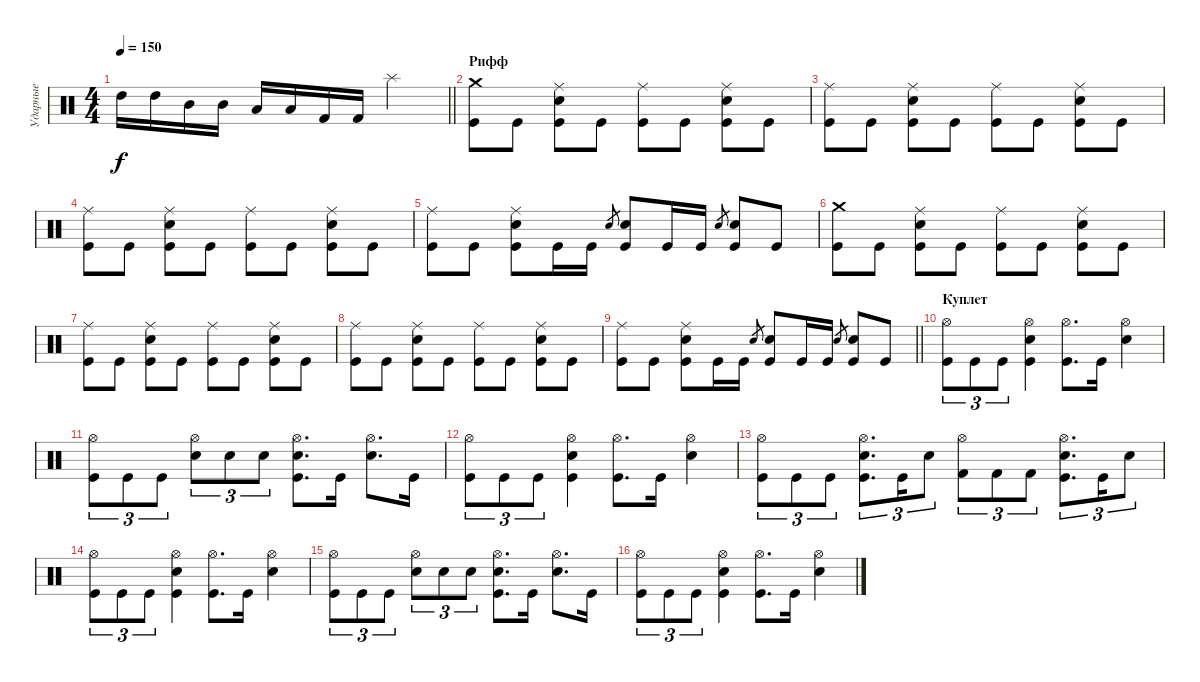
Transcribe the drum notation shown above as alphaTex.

\track ("Ударные" "Ударные") {instrument percussion}
\staff {score}
\articulation defaults
\ts (4 4)
\tempo 150
\clef neutral
\barLineRight lightlight
\ks c "High Tom (hit)".16{dy f} "High Tom (hit)".16 "Mid Tom (hit)".16 "Mid Tom (hit)".16 "Low Tom (hit)".16 "Low Tom (hit)".16 "Kick (hit) 2".16 "Kick (hit) 2".16 "Splash (hit)".2
|
\section ("" "Рифф")
("Kick (hit)" "Crash medium (hit)").8 "Kick (hit)".8 ("Kick (hit)" "Electric Snare (hit)" "Ride (middle)").8 "Kick (hit)".8 ("Kick (hit)" "Ride (middle)").8 "Kick (hit)".8 ("Kick (hit)" "Electric Snare (hit)" "Ride (middle)").8 "Kick (hit)".8 |
("Kick (hit)" "Ride (middle)").8 "Kick (hit)".8 ("Kick (hit)" "Electric Snare (hit)" "Ride (middle)").8 "Kick (hit)".8 ("Kick (hit)" "Ride (middle)").8 "Kick (hit)".8 ("Kick (hit)" "Electric Snare (hit)" "Ride (middle)").8 "Kick (hit)".8 |
("Kick (hit)" "Ride (middle)").8 "Kick (hit)".8 ("Kick (hit)" "Electric Snare (hit)" "Ride (middle)").8 "Kick (hit)".8 ("Kick (hit)" "Ride (middle)").8 "Kick (hit)".8 ("Kick (hit)" "Electric Snare (hit)" "Ride (middle)").8 "Kick (hit)".8 |
("Kick (hit)" "Ride (middle)").8 "Kick (hit)".8 ("Kick (hit)" "Electric Snare (hit)" "Ride (middle)").8 "Kick (hit)".16 "Kick (hit)".16 "Electric Snare (hit)".8{gr} ("Electric Snare (hit)" "Kick (hit)").8 "Kick (hit)".16 "Kick (hit)".16 "Electric Snare (hit)".8{gr} ("Electric Snare (hit)" "Kick (hit)").8 "Kick (hit)".8 |
("Kick (hit)" "Crash medium (hit)").8 "Kick (hit)".8 ("Kick (hit)" "Electric Snare (hit)" "Ride (middle)").8 "Kick (hit)".8 ("Kick (hit)" "Ride (middle)").8 "Kick (hit)".8 ("Kick (hit)" "Electric Snare (hit)" "Ride (middle)").8 "Kick (hit)".8 |
("Kick (hit)" "Ride (middle)").8 "Kick (hit)".8 ("Kick (hit)" "Electric Snare (hit)" "Ride (middle)").8 "Kick (hit)".8 ("Kick (hit)" "Ride (middle)").8 "Kick (hit)".8 ("Kick (hit)" "Electric Snare (hit)" "Ride (middle)").8 "Kick (hit)".8 |
("Kick (hit)" "Ride (middle)").8 "Kick (hit)".8 ("Kick (hit)" "Electric Snare (hit)" "Ride (middle)").8 "Kick (hit)".8 ("Kick (hit)" "Ride (middle)").8 "Kick (hit)".8 ("Kick (hit)" "Electric Snare (hit)" "Ride (middle)").8 "Kick (hit)".8 |
\barLineRight lightlight
("Kick (hit)" "Ride (middle)").8 "Kick (hit)".8 ("Kick (hit)" "Electric Snare (hit)" "Ride (middle)").8 "Kick (hit)".16 "Kick (hit)".16 "Electric Snare (hit)".8{gr} ("Electric Snare (hit)" "Kick (hit)").8 "Kick (hit)".16 "Kick (hit)".16 "Electric Snare (hit)".8{gr} ("Electric Snare (hit)" "Kick (hit)").8 "Kick (hit)".8 |
\section ("" "Куплет")
("Kick (hit)" "Hi-Hat (open)").8{tu (3 2)} "Kick (hit)".8{tu (3 2)} "Kick (hit)".8{tu (3 2)} ("Kick (hit)" "Electric Snare (hit)" "Hi-Hat (open)").4 ("Kick (hit)" "Hi-Hat (open)").8{d} "Kick (hit)".16 ("Electric Snare (hit)" "Hi-Hat (open)").4 |
("Kick (hit)" "Hi-Hat (open)").8{tu (3 2)} "Kick (hit)".8{tu (3 2)} "Kick (hit)".8{tu (3 2)} ("Electric Snare (hit)" "Hi-Hat (open)").8{tu (3 2)} "Electric Snare (hit)".8{tu (3 2)} "Electric Snare (hit)".8{tu (3 2)} ("Electric Snare (hit)" "Kick (hit)" "Hi-Hat (open)").8{d} "Kick (hit)".16 ("Electric Snare (hit)" "Hi-Hat (open)").8{d} "Kick (hit)".16 |
("Kick (hit)" "Hi-Hat (open)").8{tu (3 2)} "Kick (hit)".8{tu (3 2)} "Kick (hit)".8{tu (3 2)} ("Kick (hit)" "Electric Snare (hit)" "Hi-Hat (open)").4 ("Kick (hit)" "Hi-Hat (open)").8{d} "Kick (hit)".16 ("Electric Snare (hit)" "Hi-Hat (open)").4 |
("Kick (hit)" "Hi-Hat (open)").8{tu (3 2)} "Kick (hit)".8{tu (3 2)} "Kick (hit)".8{tu (3 2)} ("Electric Snare (hit)" "Hi-Hat (open)" "Kick (hit)").8{d tu (3 2)} "Kick (hit)".16{tu (3 2)} "Electric Snare (hit)".8{tu (3 2)} ("Kick (hit) 2" "Hi-Hat (open)").8{tu (3 2)} "Kick (hit) 2".8{tu (3 2)} "Kick (hit) 2".8{tu (3 2)} ("Electric Snare (hit)" "Hi-Hat (open)" "Kick (hit)").8{d tu (3 2)} "Kick (hit)".16{tu (3 2)} "Electric Snare (hit)".8{tu (3 2)} |
("Kick (hit)" "Hi-Hat (open)").8{tu (3 2)} "Kick (hit)".8{tu (3 2)} "Kick (hit)".8{tu (3 2)} ("Kick (hit)" "Electric Snare (hit)" "Hi-Hat (open)").4 ("Kick (hit)" "Hi-Hat (open)").8{d} "Kick (hit)".16 ("Electric Snare (hit)" "Hi-Hat (open)").4 |
("Kick (hit)" "Hi-Hat (open)").8{tu (3 2)} "Kick (hit)".8{tu (3 2)} "Kick (hit)".8{tu (3 2)} ("Electric Snare (hit)" "Hi-Hat (open)").8{tu (3 2)} "Electric Snare (hit)".8{tu (3 2)} "Electric Snare (hit)".8{tu (3 2)} ("Electric Snare (hit)" "Kick (hit)" "Hi-Hat (open)").8{d} "Kick (hit)".16 ("Electric Snare (hit)" "Hi-Hat (open)").8{d} "Kick (hit)".16 |
("Kick (hit)" "Hi-Hat (open)").8{tu (3 2)} "Kick (hit)".8{tu (3 2)} "Kick (hit)".8{tu (3 2)} ("Kick (hit)" "Electric Snare (hit)" "Hi-Hat (open)").4 ("Kick (hit)" "Hi-Hat (open)").8{d} "Kick (hit)".16 ("Electric Snare (hit)" "Hi-Hat (open)").4
